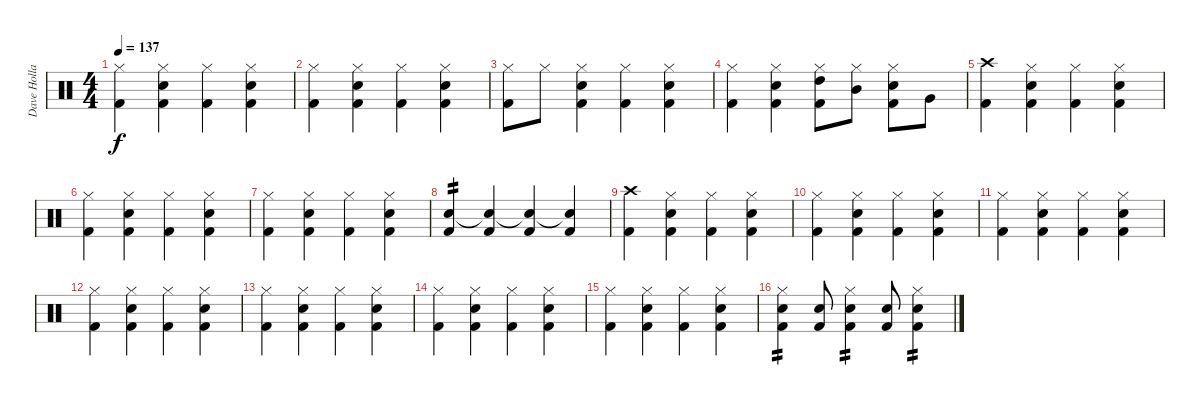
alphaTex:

\track ("Dave Holland" "Dave Holla") {instrument percussion}
\staff {score}
\articulation defaults
\ts (4 4)
\tempo 137
\clef neutral
\ks c
("Hi-Hat (closed)" "Kick (hit) 2").4{dy f} ("Hi-Hat (closed)" "Snare (hit) 2" "Kick (hit) 2").4 ("Hi-Hat (closed)" "Kick (hit) 2").4 ("Hi-Hat (closed)" "Snare (hit) 2" "Kick (hit) 2").4 |
("Hi-Hat (closed)" "Kick (hit) 2").4 ("Hi-Hat (closed)" "Snare (hit) 2" "Kick (hit) 2").4 ("Hi-Hat (closed)" "Kick (hit) 2").4 ("Hi-Hat (closed)" "Snare (hit) 2" "Kick (hit) 2").4 |
("Hi-Hat (closed)" "Kick (hit) 2").8 "Hi-Hat (closed)".8 ("Hi-Hat (closed)" "Snare (hit) 2" "Kick (hit) 2").4 ("Hi-Hat (closed)" "Kick (hit) 2").4 ("Hi-Hat (closed)" "Snare (hit) 2" "Kick (hit) 2").4 |
("Hi-Hat (closed)" "Kick (hit) 2").4 ("Hi-Hat (closed)" "Snare (hit) 2" "Kick (hit) 2").4 ("Hi-Hat (closed)" "High Tom (hit)" "Kick (hit) 2").8 ("Hi-Hat (closed)" "Mid Tom (hit)").8 ("Hi-Hat (closed)" "Snare (hit) 2" "Kick (hit) 2").8 "Very Low Tom (hit)".8 |
("Crash high (hit)" "Kick (hit) 2").4 ("Hi-Hat (closed)" "Snare (hit) 2" "Kick (hit) 2").4 ("Hi-Hat (closed)" "Kick (hit) 2").4 ("Hi-Hat (closed)" "Snare (hit) 2" "Kick (hit) 2").4 |
("Hi-Hat (closed)" "Kick (hit) 2").4 ("Hi-Hat (closed)" "Snare (hit) 2" "Kick (hit) 2").4 ("Hi-Hat (closed)" "Kick (hit) 2").4 ("Hi-Hat (closed)" "Snare (hit) 2" "Kick (hit) 2").4 |
("Hi-Hat (closed)" "Kick (hit) 2").4 ("Hi-Hat (closed)" "Snare (hit) 2" "Kick (hit) 2").4 ("Hi-Hat (closed)" "Kick (hit) 2").4 ("Hi-Hat (closed)" "Snare (hit) 2" "Kick (hit) 2").4 |
("Snare (hit) 2" "Kick (hit) 2").4{tp 2} ("Snare (hit)"{t} "Kick (hit) 2").4 ("Snare (hit)"{t} "Kick (hit) 2").4 ("Snare (hit)"{t} "Kick (hit) 2").4 |
("Crash high (hit)" "Kick (hit) 2").4 ("Hi-Hat (closed)" "Snare (hit) 2" "Kick (hit) 2").4 ("Hi-Hat (closed)" "Kick (hit) 2").4 ("Hi-Hat (closed)" "Snare (hit) 2" "Kick (hit) 2").4 |
("Hi-Hat (closed)" "Kick (hit) 2").4 ("Hi-Hat (closed)" "Snare (hit) 2" "Kick (hit) 2").4 ("Hi-Hat (closed)" "Kick (hit) 2").4 ("Hi-Hat (closed)" "Snare (hit) 2" "Kick (hit) 2").4 |
("Hi-Hat (closed)" "Kick (hit) 2").4 ("Hi-Hat (closed)" "Snare (hit) 2" "Kick (hit) 2").4 ("Hi-Hat (closed)" "Kick (hit) 2").4 ("Hi-Hat (closed)" "Snare (hit) 2" "Kick (hit) 2").4 |
("Hi-Hat (closed)" "Kick (hit) 2").4 ("Hi-Hat (closed)" "Snare (hit) 2" "Kick (hit) 2").4 ("Hi-Hat (closed)" "Kick (hit) 2").4 ("Hi-Hat (closed)" "Snare (hit) 2" "Kick (hit) 2").4 |
("Hi-Hat (closed)" "Kick (hit) 2").4 ("Hi-Hat (closed)" "Snare (hit) 2" "Kick (hit) 2").4 ("Hi-Hat (closed)" "Kick (hit) 2").4 ("Hi-Hat (closed)" "Snare (hit) 2" "Kick (hit) 2").4 |
("Hi-Hat (closed)" "Kick (hit) 2").4 ("Hi-Hat (closed)" "Snare (hit) 2" "Kick (hit) 2").4 ("Hi-Hat (closed)" "Kick (hit) 2").4 ("Hi-Hat (closed)" "Snare (hit) 2" "Kick (hit) 2").4 |
("Hi-Hat (closed)" "Kick (hit) 2").4 ("Hi-Hat (closed)" "Snare (hit) 2" "Kick (hit) 2").4 ("Hi-Hat (closed)" "Kick (hit) 2").4 ("Hi-Hat (closed)" "Snare (hit) 2" "Kick (hit) 2").4 |
("Hi-Hat (closed)" "Snare (hit) 2" "Kick (hit) 2").4{tp 2} ("Snare (hit) 2" "Kick (hit) 2").8 ("Hi-Hat (closed)" "Snare (hit) 2" "Kick (hit) 2").4{tp 2} ("Snare (hit) 2" "Kick (hit) 2").8 ("Hi-Hat (closed)" "Snare (hit) 2" "Kick (hit) 2").4{tp 2}
